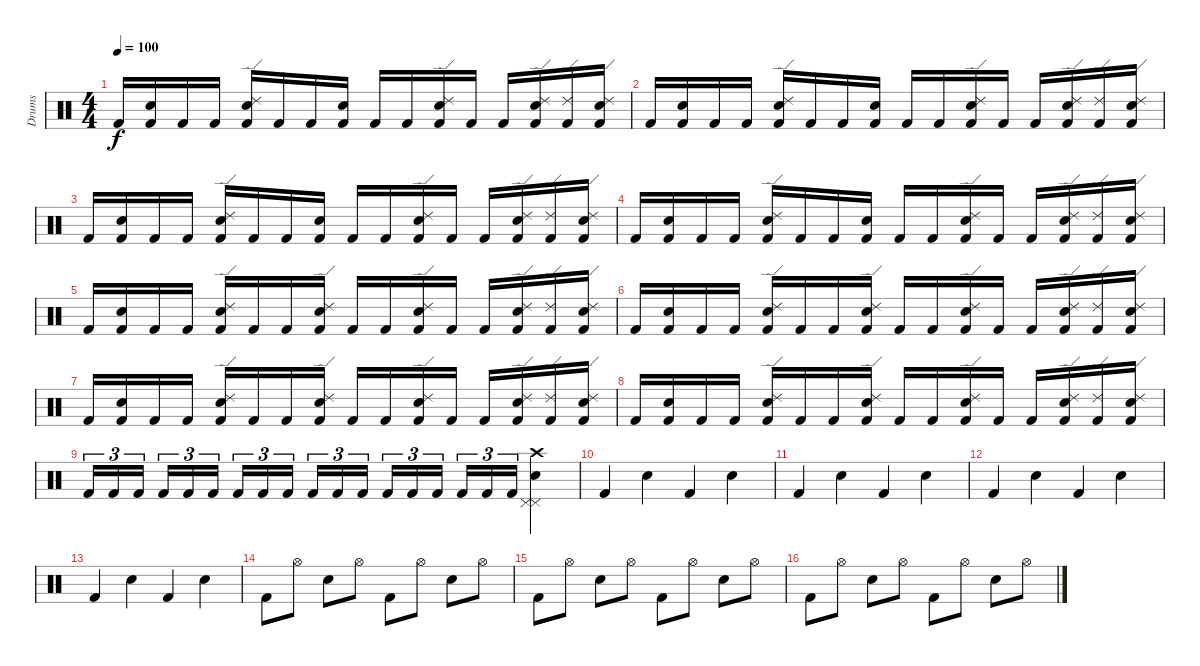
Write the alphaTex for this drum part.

\track ("Drums" "Drums") {instrument percussion}
\staff {score}
\articulation defaults
\ts (4 4)
\tempo 100
\clef neutral
\ks c "Kick (hit) 2".16{dy f}
("Kick (hit) 2" "Snare (hit) 2").16 "Kick (hit) 2".16 "Kick (hit) 2".16 ("Kick (hit) 2" "Snare (hit) 2" "Ride (edge) 2").16 "Kick (hit) 2".16 "Kick (hit) 2".16 ("Kick (hit) 2" "Snare (hit) 2").16 "Kick (hit) 2".16 "Kick (hit) 2".16 ("Kick (hit) 2" "Snare (hit) 2" "Ride (edge) 2").16 "Kick (hit) 2".16 "Kick (hit) 2".16 ("Kick (hit) 2" "Snare (hit) 2" "Ride (edge) 2").16 ("Kick (hit) 2" "Ride (edge) 2").16 ("Kick (hit) 2" "Snare (hit) 2" "Ride (edge) 2").16 |
"Kick (hit) 2".16 ("Kick (hit) 2" "Snare (hit) 2").16 "Kick (hit) 2".16 "Kick (hit) 2".16 ("Kick (hit) 2" "Snare (hit) 2" "Ride (edge) 2").16 "Kick (hit) 2".16 "Kick (hit) 2".16 ("Kick (hit) 2" "Snare (hit) 2").16 "Kick (hit) 2".16 "Kick (hit) 2".16 ("Kick (hit) 2" "Snare (hit) 2" "Ride (edge) 2").16 "Kick (hit) 2".16 "Kick (hit) 2".16 ("Kick (hit) 2" "Snare (hit) 2" "Ride (edge) 2").16 ("Kick (hit) 2" "Ride (edge) 2").16 ("Kick (hit) 2" "Snare (hit) 2" "Ride (edge) 2").16 |
"Kick (hit) 2".16 ("Kick (hit) 2" "Snare (hit) 2").16 "Kick (hit) 2".16 "Kick (hit) 2".16 ("Kick (hit) 2" "Snare (hit) 2" "Ride (edge) 2").16 "Kick (hit) 2".16 "Kick (hit) 2".16 ("Kick (hit) 2" "Snare (hit) 2").16 "Kick (hit) 2".16 "Kick (hit) 2".16 ("Kick (hit) 2" "Snare (hit) 2" "Ride (edge) 2").16 "Kick (hit) 2".16 "Kick (hit) 2".16 ("Kick (hit) 2" "Snare (hit) 2" "Ride (edge) 2").16 ("Kick (hit) 2" "Ride (edge) 2").16 ("Kick (hit) 2" "Snare (hit) 2" "Ride (edge) 2").16 |
"Kick (hit) 2".16 ("Kick (hit) 2" "Snare (hit) 2").16 "Kick (hit) 2".16 "Kick (hit) 2".16 ("Kick (hit) 2" "Snare (hit) 2" "Ride (edge) 2").16 "Kick (hit) 2".16 "Kick (hit) 2".16 ("Kick (hit) 2" "Snare (hit) 2").16 "Kick (hit) 2".16 "Kick (hit) 2".16 ("Kick (hit) 2" "Snare (hit) 2" "Ride (edge) 2").16 "Kick (hit) 2".16 "Kick (hit) 2".16 ("Kick (hit) 2" "Snare (hit) 2" "Ride (edge) 2").16 ("Kick (hit) 2" "Ride (edge) 2").16 ("Kick (hit) 2" "Snare (hit) 2" "Ride (edge) 2").16 |
"Kick (hit) 2".16 ("Kick (hit) 2" "Snare (hit) 2").16 "Kick (hit) 2".16 "Kick (hit) 2".16 ("Kick (hit) 2" "Snare (hit) 2" "Ride (edge) 2").16 "Kick (hit) 2".16 "Kick (hit) 2".16 ("Kick (hit) 2" "Snare (hit) 2" "Ride (edge) 2").16 "Kick (hit) 2".16 "Kick (hit) 2".16 ("Kick (hit) 2" "Snare (hit) 2" "Ride (edge) 2").16 "Kick (hit) 2".16 "Kick (hit) 2".16 ("Kick (hit) 2" "Snare (hit) 2" "Ride (edge) 2").16 ("Kick (hit) 2" "Ride (edge) 2").16 ("Kick (hit) 2" "Snare (hit) 2" "Ride (edge) 2").16 |
"Kick (hit) 2".16 ("Kick (hit) 2" "Snare (hit) 2").16 "Kick (hit) 2".16 "Kick (hit) 2".16 ("Kick (hit) 2" "Snare (hit) 2" "Ride (edge) 2").16 "Kick (hit) 2".16 "Kick (hit) 2".16 ("Kick (hit) 2" "Snare (hit) 2" "Ride (edge) 2").16 "Kick (hit) 2".16 "Kick (hit) 2".16 ("Kick (hit) 2" "Snare (hit) 2" "Ride (edge) 2").16 "Kick (hit) 2".16 "Kick (hit) 2".16 ("Kick (hit) 2" "Snare (hit) 2" "Ride (edge) 2").16 ("Kick (hit) 2" "Ride (edge) 2").16 ("Kick (hit) 2" "Snare (hit) 2" "Ride (edge) 2").16 |
"Kick (hit) 2".16 ("Kick (hit) 2" "Snare (hit) 2").16 "Kick (hit) 2".16 "Kick (hit) 2".16 ("Kick (hit) 2" "Snare (hit) 2" "Ride (edge) 2").16 "Kick (hit) 2".16 "Kick (hit) 2".16 ("Kick (hit) 2" "Snare (hit) 2" "Ride (edge) 2").16 "Kick (hit) 2".16 "Kick (hit) 2".16 ("Kick (hit) 2" "Snare (hit) 2" "Ride (edge) 2").16 "Kick (hit) 2".16 "Kick (hit) 2".16 ("Kick (hit) 2" "Snare (hit) 2" "Ride (edge) 2").16 ("Kick (hit) 2" "Ride (edge) 2").16 ("Kick (hit) 2" "Snare (hit) 2" "Ride (edge) 2").16 |
"Kick (hit) 2".16 ("Kick (hit) 2" "Snare (hit) 2").16 "Kick (hit) 2".16 "Kick (hit) 2".16 ("Kick (hit) 2" "Snare (hit) 2" "Ride (edge) 2").16 "Kick (hit) 2".16 "Kick (hit) 2".16 ("Kick (hit) 2" "Snare (hit) 2" "Ride (edge) 2").16 "Kick (hit) 2".16 "Kick (hit) 2".16 ("Kick (hit) 2" "Snare (hit) 2" "Ride (edge) 2").16 "Kick (hit) 2".16 "Kick (hit) 2".16 ("Kick (hit) 2" "Snare (hit) 2" "Ride (edge) 2").16 ("Kick (hit) 2" "Ride (edge) 2").16 ("Kick (hit) 2" "Snare (hit) 2" "Ride (edge) 2").16 |
"Kick (hit) 2".16{tu (3 2)} "Kick (hit) 2".16{tu (3 2)} "Kick (hit) 2".16{tu (3 2)} "Kick (hit) 2".16{tu (3 2)} "Kick (hit) 2".16{tu (3 2)} "Kick (hit) 2".16{tu (3 2)} "Kick (hit) 2".16{tu (3 2)} "Kick (hit) 2".16{tu (3 2)} "Kick (hit) 2".16{tu (3 2)} "Kick (hit) 2".16{tu (3 2)} "Kick (hit) 2".16{tu (3 2)} "Kick (hit) 2".16{tu (3 2)} "Kick (hit) 2".16{tu (3 2)} "Kick (hit) 2".16{tu (3 2)} "Kick (hit) 2".16{tu (3 2)} "Kick (hit) 2".16{tu (3 2)} "Kick (hit) 2".16{tu (3 2)} "Kick (hit) 2".16{tu (3 2)} ("Snare (hit) 2" "Pedal Hi-Hat (hit)" "Pedal Hi-Hat (hit)" "Crash high (hit)").4 |
"Kick (hit) 2".4 "Snare (hit) 2".4 "Kick (hit) 2".4 "Snare (hit) 2".4 |
"Kick (hit) 2".4 "Snare (hit) 2".4 "Kick (hit) 2".4 "Snare (hit) 2".4 |
"Kick (hit) 2".4 "Snare (hit) 2".4 "Kick (hit) 2".4 "Snare (hit) 2".4 |
"Kick (hit) 2".4 "Snare (hit) 2".4 "Kick (hit) 2".4 "Snare (hit) 2".4 |
"Kick (hit) 2".8 "Hi-Hat (open)".8 "Snare (hit) 2".8 "Hi-Hat (open)".8 "Kick (hit) 2".8 "Hi-Hat (open)".8 "Snare (hit) 2".8 "Hi-Hat (open)".8 |
"Kick (hit) 2".8 "Hi-Hat (open)".8 "Snare (hit) 2".8 "Hi-Hat (open)".8 "Kick (hit) 2".8 "Hi-Hat (open)".8 "Snare (hit) 2".8 "Hi-Hat (open)".8 |
"Kick (hit) 2".8 "Hi-Hat (open)".8 "Snare (hit) 2".8 "Hi-Hat (open)".8 "Kick (hit) 2".8 "Hi-Hat (open)".8 "Snare (hit) 2".8 "Hi-Hat (open)".8
